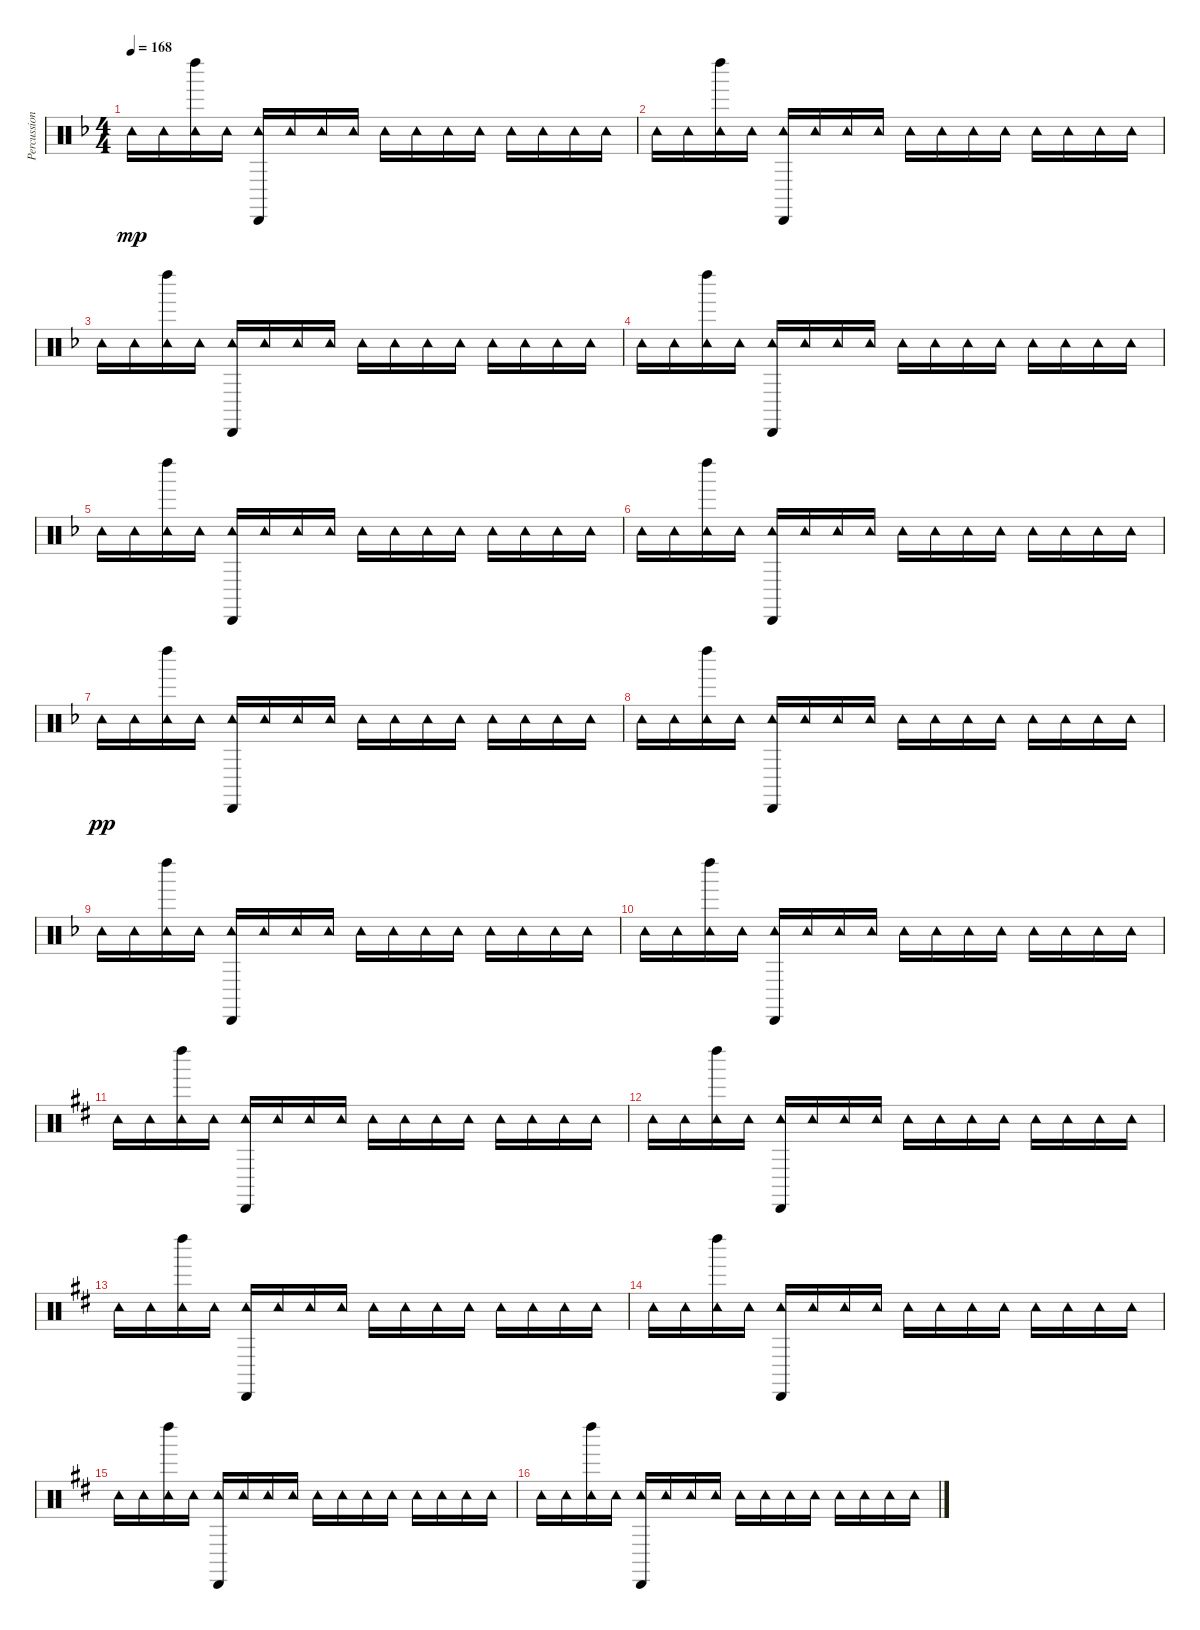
\track ("Percussions" "Percussion") {instrument percussion}
\staff {score}
\articulation defaults
\ts (4 4)
\tempo 168
\clef neutral
\ks f "Tambourine (hit)".16{dy mp} "Tambourine (hit)".16
("Left Maraca (hit)" "Tambourine (hit)").16 "Tambourine (hit)".16 ("Cabasa (hit)" "Tambourine (hit)").16 "Tambourine (hit)".16 "Tambourine (hit)".16 "Tambourine (hit)".16 "Tambourine (hit)".16 "Tambourine (hit)".16 "Tambourine (hit)".16 "Tambourine (hit)".16 "Tambourine (hit)".16 "Tambourine (hit)".16 "Tambourine (hit)".16 "Tambourine (hit)".16 |
"Tambourine (hit)".16 "Tambourine (hit)".16 ("Left Maraca (hit)" "Tambourine (hit)").16 "Tambourine (hit)".16 ("Cabasa (hit)" "Tambourine (hit)").16 "Tambourine (hit)".16 "Tambourine (hit)".16 "Tambourine (hit)".16 "Tambourine (hit)".16 "Tambourine (hit)".16 "Tambourine (hit)".16 "Tambourine (hit)".16 "Tambourine (hit)".16 "Tambourine (hit)".16 "Tambourine (hit)".16 "Tambourine (hit)".16 |
"Tambourine (hit)".16 "Tambourine (hit)".16 ("Left Maraca (hit)" "Tambourine (hit)").16 "Tambourine (hit)".16 ("Cabasa (hit)" "Tambourine (hit)").16 "Tambourine (hit)".16 "Tambourine (hit)".16 "Tambourine (hit)".16 "Tambourine (hit)".16 "Tambourine (hit)".16 "Tambourine (hit)".16 "Tambourine (hit)".16 "Tambourine (hit)".16 "Tambourine (hit)".16 "Tambourine (hit)".16 "Tambourine (hit)".16 |
"Tambourine (hit)".16 "Tambourine (hit)".16 ("Left Maraca (hit)" "Tambourine (hit)").16 "Tambourine (hit)".16 ("Cabasa (hit)" "Tambourine (hit)").16 "Tambourine (hit)".16 "Tambourine (hit)".16 "Tambourine (hit)".16 "Tambourine (hit)".16 "Tambourine (hit)".16 "Tambourine (hit)".16 "Tambourine (hit)".16 "Tambourine (hit)".16 "Tambourine (hit)".16 "Tambourine (hit)".16 "Tambourine (hit)".16 |
"Tambourine (hit)".16 "Tambourine (hit)".16 ("Left Maraca (hit)" "Tambourine (hit)").16 "Tambourine (hit)".16 ("Cabasa (hit)" "Tambourine (hit)").16 "Tambourine (hit)".16 "Tambourine (hit)".16 "Tambourine (hit)".16 "Tambourine (hit)".16 "Tambourine (hit)".16 "Tambourine (hit)".16 "Tambourine (hit)".16 "Tambourine (hit)".16 "Tambourine (hit)".16 "Tambourine (hit)".16 "Tambourine (hit)".16 |
"Tambourine (hit)".16 "Tambourine (hit)".16 ("Left Maraca (hit)" "Tambourine (hit)").16 "Tambourine (hit)".16 ("Cabasa (hit)" "Tambourine (hit)").16 "Tambourine (hit)".16 "Tambourine (hit)".16 "Tambourine (hit)".16 "Tambourine (hit)".16 "Tambourine (hit)".16 "Tambourine (hit)".16 "Tambourine (hit)".16 "Tambourine (hit)".16 "Tambourine (hit)".16 "Tambourine (hit)".16 "Tambourine (hit)".16 |
"Tambourine (hit)".16{dy pp} "Tambourine (hit)".16 ("Left Maraca (hit)" "Tambourine (hit)").16 "Tambourine (hit)".16 ("Cabasa (hit)" "Tambourine (hit)").16 "Tambourine (hit)".16 "Tambourine (hit)".16 "Tambourine (hit)".16 "Tambourine (hit)".16 "Tambourine (hit)".16 "Tambourine (hit)".16 "Tambourine (hit)".16 "Tambourine (hit)".16 "Tambourine (hit)".16 "Tambourine (hit)".16 "Tambourine (hit)".16 |
"Tambourine (hit)".16 "Tambourine (hit)".16 ("Left Maraca (hit)" "Tambourine (hit)").16 "Tambourine (hit)".16 ("Cabasa (hit)" "Tambourine (hit)").16 "Tambourine (hit)".16 "Tambourine (hit)".16 "Tambourine (hit)".16 "Tambourine (hit)".16 "Tambourine (hit)".16 "Tambourine (hit)".16 "Tambourine (hit)".16 "Tambourine (hit)".16 "Tambourine (hit)".16 "Tambourine (hit)".16 "Tambourine (hit)".16 |
"Tambourine (hit)".16 "Tambourine (hit)".16 ("Left Maraca (hit)" "Tambourine (hit)").16 "Tambourine (hit)".16 ("Cabasa (hit)" "Tambourine (hit)").16 "Tambourine (hit)".16 "Tambourine (hit)".16 "Tambourine (hit)".16 "Tambourine (hit)".16 "Tambourine (hit)".16 "Tambourine (hit)".16 "Tambourine (hit)".16 "Tambourine (hit)".16 "Tambourine (hit)".16 "Tambourine (hit)".16 "Tambourine (hit)".16 |
"Tambourine (hit)".16 "Tambourine (hit)".16 ("Left Maraca (hit)" "Tambourine (hit)").16 "Tambourine (hit)".16 ("Cabasa (hit)" "Tambourine (hit)").16 "Tambourine (hit)".16 "Tambourine (hit)".16 "Tambourine (hit)".16 "Tambourine (hit)".16 "Tambourine (hit)".16 "Tambourine (hit)".16 "Tambourine (hit)".16 "Tambourine (hit)".16 "Tambourine (hit)".16 "Tambourine (hit)".16 "Tambourine (hit)".16 |
\ks d "Tambourine (hit)".16 "Tambourine (hit)".16
("Left Maraca (hit)" "Tambourine (hit)").16 "Tambourine (hit)".16 ("Cabasa (hit)" "Tambourine (hit)").16 "Tambourine (hit)".16 "Tambourine (hit)".16 "Tambourine (hit)".16 "Tambourine (hit)".16 "Tambourine (hit)".16 "Tambourine (hit)".16 "Tambourine (hit)".16 "Tambourine (hit)".16 "Tambourine (hit)".16 "Tambourine (hit)".16 "Tambourine (hit)".16 |
"Tambourine (hit)".16 "Tambourine (hit)".16 ("Left Maraca (hit)" "Tambourine (hit)").16 "Tambourine (hit)".16 ("Cabasa (hit)" "Tambourine (hit)").16 "Tambourine (hit)".16 "Tambourine (hit)".16 "Tambourine (hit)".16 "Tambourine (hit)".16 "Tambourine (hit)".16 "Tambourine (hit)".16 "Tambourine (hit)".16 "Tambourine (hit)".16 "Tambourine (hit)".16 "Tambourine (hit)".16 "Tambourine (hit)".16 |
"Tambourine (hit)".16 "Tambourine (hit)".16 ("Left Maraca (hit)" "Tambourine (hit)").16 "Tambourine (hit)".16 ("Cabasa (hit)" "Tambourine (hit)").16 "Tambourine (hit)".16 "Tambourine (hit)".16 "Tambourine (hit)".16 "Tambourine (hit)".16 "Tambourine (hit)".16 "Tambourine (hit)".16 "Tambourine (hit)".16 "Tambourine (hit)".16 "Tambourine (hit)".16 "Tambourine (hit)".16 "Tambourine (hit)".16 |
"Tambourine (hit)".16 "Tambourine (hit)".16 ("Left Maraca (hit)" "Tambourine (hit)").16 "Tambourine (hit)".16 ("Cabasa (hit)" "Tambourine (hit)").16 "Tambourine (hit)".16 "Tambourine (hit)".16 "Tambourine (hit)".16 "Tambourine (hit)".16 "Tambourine (hit)".16 "Tambourine (hit)".16 "Tambourine (hit)".16 "Tambourine (hit)".16 "Tambourine (hit)".16 "Tambourine (hit)".16 "Tambourine (hit)".16 |
"Tambourine (hit)".16 "Tambourine (hit)".16 ("Left Maraca (hit)" "Tambourine (hit)").16 "Tambourine (hit)".16 ("Cabasa (hit)" "Tambourine (hit)").16 "Tambourine (hit)".16 "Tambourine (hit)".16 "Tambourine (hit)".16 "Tambourine (hit)".16 "Tambourine (hit)".16 "Tambourine (hit)".16 "Tambourine (hit)".16 "Tambourine (hit)".16 "Tambourine (hit)".16 "Tambourine (hit)".16 "Tambourine (hit)".16 |
"Tambourine (hit)".16 "Tambourine (hit)".16 ("Left Maraca (hit)" "Tambourine (hit)").16 "Tambourine (hit)".16 ("Cabasa (hit)" "Tambourine (hit)").16 "Tambourine (hit)".16 "Tambourine (hit)".16 "Tambourine (hit)".16 "Tambourine (hit)".16 "Tambourine (hit)".16 "Tambourine (hit)".16 "Tambourine (hit)".16 "Tambourine (hit)".16 "Tambourine (hit)".16 "Tambourine (hit)".16 "Tambourine (hit)".16
